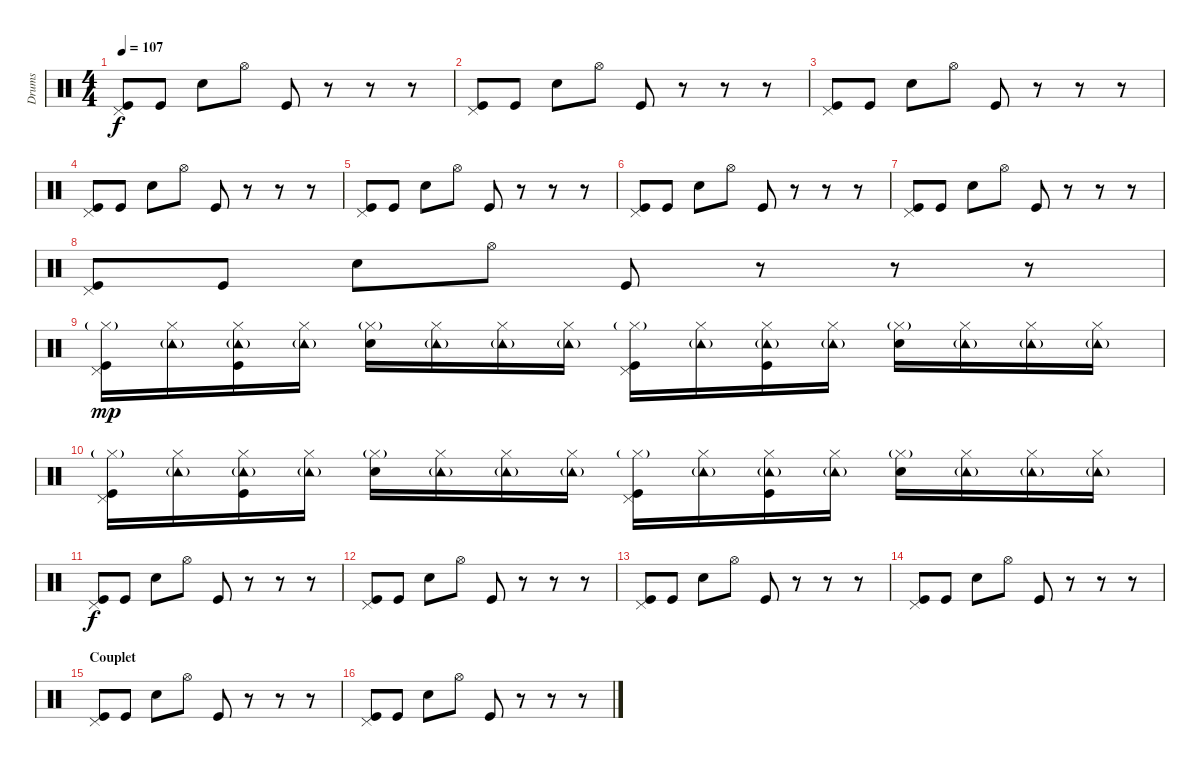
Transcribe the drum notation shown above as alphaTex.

\track ("Drums" "Drums") {instrument percussion}
\staff {score}
\articulation defaults
\ts (4 4)
\tempo 107
\clef neutral
\ks c
("Pedal Hi-Hat (hit)" "Kick (hit)").8{dy f} "Kick (hit)".8 "Electric Snare (hit)".8 "Hi-Hat (open)".8 "Kick (hit)".8 r.8 r.8 r.8 |
("Pedal Hi-Hat (hit)" "Kick (hit)").8 "Kick (hit)".8 "Electric Snare (hit)".8 "Hi-Hat (open)".8 "Kick (hit)".8 r.8 r.8 r.8 |
("Pedal Hi-Hat (hit)" "Kick (hit)").8 "Kick (hit)".8 "Electric Snare (hit)".8 "Hi-Hat (open)".8 "Kick (hit)".8 r.8 r.8 r.8 |
("Pedal Hi-Hat (hit)" "Kick (hit)").8 "Kick (hit)".8 "Electric Snare (hit)".8 "Hi-Hat (open)".8 "Kick (hit)".8 r.8 r.8 r.8 |
("Pedal Hi-Hat (hit)" "Kick (hit)").8 "Kick (hit)".8 "Electric Snare (hit)".8 "Hi-Hat (open)".8 "Kick (hit)".8 r.8 r.8 r.8 |
("Pedal Hi-Hat (hit)" "Kick (hit)").8 "Kick (hit)".8 "Electric Snare (hit)".8 "Hi-Hat (open)".8 "Kick (hit)".8 r.8 r.8 r.8 |
("Pedal Hi-Hat (hit)" "Kick (hit)").8 "Kick (hit)".8 "Electric Snare (hit)".8 "Hi-Hat (open)".8 "Kick (hit)".8 r.8 r.8 r.8 |
("Pedal Hi-Hat (hit)" "Kick (hit)").8 "Kick (hit)".8 "Electric Snare (hit)".8 "Hi-Hat (open)".8 "Kick (hit)".8 r.8 r.8 r.8 |
\section ("" "")
("Hi-Hat (closed)"{g} "Pedal Hi-Hat (hit)" "Kick (hit)").16{dy mp volume 11 balance 13} ("Hi-Hat (closed)" "Tambourine (hit)"{g}).16 ("Hi-Hat (closed)" "Tambourine (hit)"{g} "Kick (hit)").16 ("Hi-Hat (closed)" "Tambourine (hit)"{g}).16 ("Hi-Hat (closed)"{g} "Electric Snare (hit)").16 ("Hi-Hat (closed)" "Tambourine (hit)"{g}).16 ("Hi-Hat (closed)" "Tambourine (hit)"{g}).16 ("Hi-Hat (closed)" "Tambourine (hit)"{g}).16 ("Hi-Hat (closed)"{g} "Pedal Hi-Hat (hit)" "Kick (hit)").16 ("Hi-Hat (closed)" "Tambourine (hit)"{g}).16 ("Hi-Hat (closed)" "Tambourine (hit)"{g} "Kick (hit)").16 ("Hi-Hat (closed)" "Tambourine (hit)"{g}).16 ("Hi-Hat (closed)"{g} "Electric Snare (hit)").16 ("Hi-Hat (closed)" "Tambourine (hit)"{g}).16 ("Hi-Hat (closed)" "Tambourine (hit)"{g}).16 ("Hi-Hat (closed)" "Tambourine (hit)"{g}).16 |
("Hi-Hat (closed)"{g} "Pedal Hi-Hat (hit)" "Kick (hit)").16 ("Hi-Hat (closed)" "Tambourine (hit)"{g}).16 ("Hi-Hat (closed)" "Tambourine (hit)"{g} "Kick (hit)").16 ("Hi-Hat (closed)" "Tambourine (hit)"{g}).16 ("Hi-Hat (closed)"{g} "Electric Snare (hit)").16 ("Hi-Hat (closed)" "Tambourine (hit)"{g}).16 ("Hi-Hat (closed)" "Tambourine (hit)"{g}).16 ("Hi-Hat (closed)" "Tambourine (hit)"{g}).16 ("Hi-Hat (closed)"{g} "Pedal Hi-Hat (hit)" "Kick (hit)").16 ("Hi-Hat (closed)" "Tambourine (hit)"{g}).16 ("Hi-Hat (closed)" "Tambourine (hit)"{g} "Kick (hit)").16 ("Hi-Hat (closed)" "Tambourine (hit)"{g}).16 ("Hi-Hat (closed)"{g} "Electric Snare (hit)").16 ("Hi-Hat (closed)" "Tambourine (hit)"{g}).16 ("Hi-Hat (closed)" "Tambourine (hit)"{g}).16 ("Hi-Hat (closed)" "Tambourine (hit)"{g}).16 |
\section ("" "")
("Pedal Hi-Hat (hit)" "Kick (hit)").8{dy f volume 16 balance 8} "Kick (hit)".8 "Electric Snare (hit)".8 "Hi-Hat (open)".8 "Kick (hit)".8 r.8 r.8 r.8 |
("Pedal Hi-Hat (hit)" "Kick (hit)").8 "Kick (hit)".8 "Electric Snare (hit)".8 "Hi-Hat (open)".8 "Kick (hit)".8 r.8 r.8 r.8 |
("Pedal Hi-Hat (hit)" "Kick (hit)").8 "Kick (hit)".8 "Electric Snare (hit)".8 "Hi-Hat (open)".8 "Kick (hit)".8 r.8 r.8 r.8 |
("Pedal Hi-Hat (hit)" "Kick (hit)").8 "Kick (hit)".8 "Electric Snare (hit)".8 "Hi-Hat (open)".8 "Kick (hit)".8 r.8 r.8 r.8 |
\section ("" "Couplet")
("Pedal Hi-Hat (hit)" "Kick (hit)").8 "Kick (hit)".8 "Electric Snare (hit)".8 "Hi-Hat (open)".8 "Kick (hit)".8 r.8 r.8 r.8 |
("Pedal Hi-Hat (hit)" "Kick (hit)").8 "Kick (hit)".8 "Electric Snare (hit)".8 "Hi-Hat (open)".8 "Kick (hit)".8 r.8 r.8 r.8
